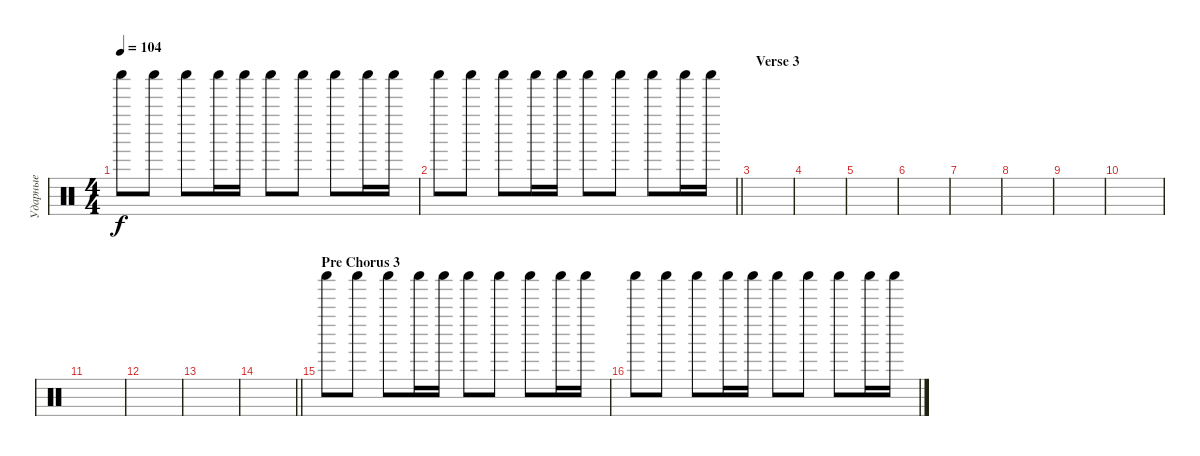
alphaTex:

\track ("Ударные" "Ударные") {instrument percussion}
\staff {score}
\articulation defaults
\ts (4 4)
\tempo 104
\clef neutral
\ks c "Shaker (hit)".8{dy f} "Shaker (hit)".8 "Shaker (hit)".8 "Shaker (hit)".16 "Shaker (hit)".16 "Shaker (hit)".8 "Shaker (hit)".8 "Shaker (hit)".8 "Shaker (hit)".16 "Shaker (hit)".16
|
\barLineRight lightlight "Shaker (hit)".8 "Shaker (hit)".8 "Shaker (hit)".8 "Shaker (hit)".16 "Shaker (hit)".16 "Shaker (hit)".8 "Shaker (hit)".8 "Shaker (hit)".8 "Shaker (hit)".16 "Shaker (hit)".16
|
\section ("" "Verse 3")
|
|
|
|
|
|
|
|
|
|
|
\barLineRight lightlight
|
\section ("" "Pre Chorus 3")
"Shaker (hit)".8 "Shaker (hit)".8 "Shaker (hit)".8 "Shaker (hit)".16 "Shaker (hit)".16 "Shaker (hit)".8 "Shaker (hit)".8 "Shaker (hit)".8 "Shaker (hit)".16 "Shaker (hit)".16 |
"Shaker (hit)".8 "Shaker (hit)".8 "Shaker (hit)".8 "Shaker (hit)".16 "Shaker (hit)".16 "Shaker (hit)".8 "Shaker (hit)".8 "Shaker (hit)".8 "Shaker (hit)".16 "Shaker (hit)".16
